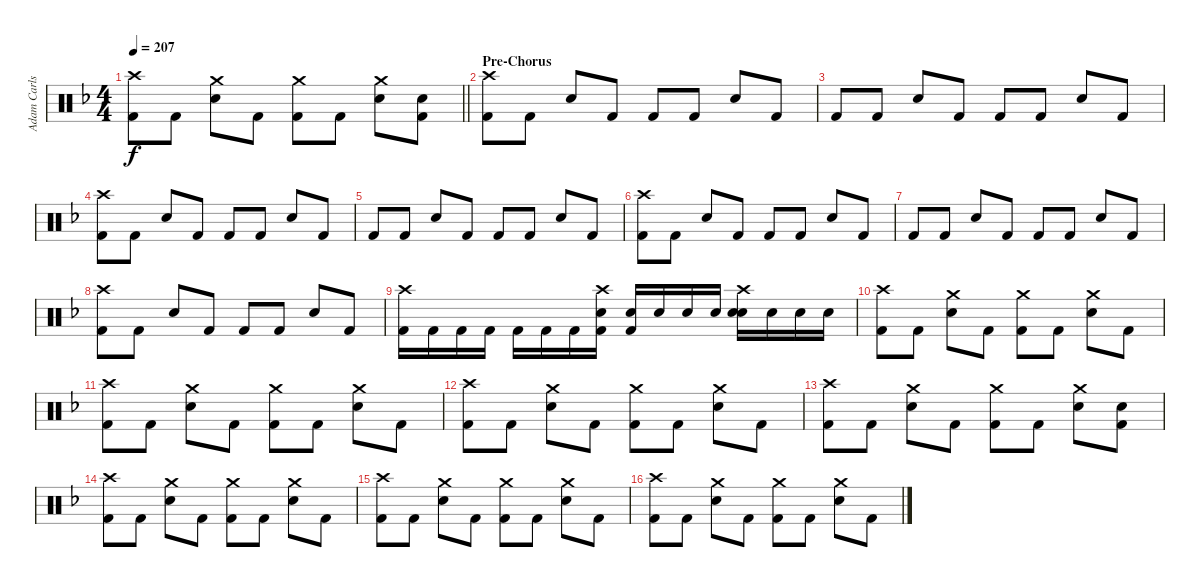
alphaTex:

\track ("Adam Carlson" "Adam Carls") {instrument percussion}
\staff {score}
\articulation defaults
\ts (4 4)
\tempo 207
\clef neutral
\barLineRight lightlight
\ks f
("Crash high (hit)" "Kick (hit) 2").8{dy f} "Kick (hit) 2".8 ("Crash medium (hit)" "Electric Snare (hit)").8 "Kick (hit) 2".8 ("Crash medium (hit)" "Kick (hit) 2").8 "Kick (hit) 2".8 ("Crash medium (hit)" "Electric Snare (hit)").8 ("Electric Snare (hit)" "Kick (hit) 2").8 |
\section ("" "Pre-Chorus")
("Crash high (hit)" "Kick (hit) 2").8 "Kick (hit) 2".8 "Electric Snare (hit)".8 "Kick (hit) 2".8 "Kick (hit) 2".8 "Kick (hit) 2".8 "Electric Snare (hit)".8 "Kick (hit) 2".8 |
"Kick (hit) 2".8 "Kick (hit) 2".8 "Electric Snare (hit)".8 "Kick (hit) 2".8 "Kick (hit) 2".8 "Kick (hit) 2".8 "Electric Snare (hit)".8 "Kick (hit) 2".8 |
("Crash high (hit)" "Kick (hit) 2").8 "Kick (hit) 2".8 "Electric Snare (hit)".8 "Kick (hit) 2".8 "Kick (hit) 2".8 "Kick (hit) 2".8 "Electric Snare (hit)".8 "Kick (hit) 2".8 |
"Kick (hit) 2".8 "Kick (hit) 2".8 "Electric Snare (hit)".8 "Kick (hit) 2".8 "Kick (hit) 2".8 "Kick (hit) 2".8 "Electric Snare (hit)".8 "Kick (hit) 2".8 |
("Crash high (hit)" "Kick (hit) 2").8 "Kick (hit) 2".8 "Electric Snare (hit)".8 "Kick (hit) 2".8 "Kick (hit) 2".8 "Kick (hit) 2".8 "Electric Snare (hit)".8 "Kick (hit) 2".8 |
"Kick (hit) 2".8 "Kick (hit) 2".8 "Electric Snare (hit)".8 "Kick (hit) 2".8 "Kick (hit) 2".8 "Kick (hit) 2".8 "Electric Snare (hit)".8 "Kick (hit) 2".8 |
("Crash high (hit)" "Kick (hit) 2").8 "Kick (hit) 2".8 "Electric Snare (hit)".8 "Kick (hit) 2".8 "Kick (hit) 2".8 "Kick (hit) 2".8 "Electric Snare (hit)".8 "Kick (hit) 2".8 |
("Crash high (hit)" "Kick (hit) 2").16 "Kick (hit) 2".16 "Kick (hit) 2".16 "Kick (hit) 2".16 "Kick (hit) 2".16 "Kick (hit) 2".16 "Kick (hit) 2".16 ("Electric Snare (hit)" "Crash high (hit)" "Kick (hit) 2").16 ("Electric Snare (hit)" "Kick (hit) 2").16 "Electric Snare (hit)".16 "Electric Snare (hit)".16 "Electric Snare (hit)".16 ("Electric Snare (hit)" "Crash high (hit)" "Electric Snare (hit)").16 "Electric Snare (hit)".16 "Electric Snare (hit)".16 "Electric Snare (hit)".16 |
("Crash high (hit)" "Kick (hit) 2").8 "Kick (hit) 2".8 ("Crash medium (hit)" "Electric Snare (hit)").8 "Kick (hit) 2".8 ("Crash medium (hit)" "Kick (hit) 2").8 "Kick (hit) 2".8 ("Crash medium (hit)" "Electric Snare (hit)").8 "Kick (hit) 2".8 |
("Crash high (hit)" "Kick (hit) 2").8 "Kick (hit) 2".8 ("Crash medium (hit)" "Electric Snare (hit)").8 "Kick (hit) 2".8 ("Crash medium (hit)" "Kick (hit) 2").8 "Kick (hit) 2".8 ("Crash medium (hit)" "Electric Snare (hit)").8 "Kick (hit) 2".8 |
("Crash high (hit)" "Kick (hit) 2").8 "Kick (hit) 2".8 ("Crash medium (hit)" "Electric Snare (hit)").8 "Kick (hit) 2".8 ("Crash medium (hit)" "Kick (hit) 2").8 "Kick (hit) 2".8 ("Crash medium (hit)" "Electric Snare (hit)").8 "Kick (hit) 2".8 |
("Crash high (hit)" "Kick (hit) 2").8 "Kick (hit) 2".8 ("Crash medium (hit)" "Electric Snare (hit)").8 "Kick (hit) 2".8 ("Crash medium (hit)" "Kick (hit) 2").8 "Kick (hit) 2".8 ("Crash medium (hit)" "Electric Snare (hit)").8 ("Electric Snare (hit)" "Kick (hit) 2").8 |
("Crash high (hit)" "Kick (hit) 2").8 "Kick (hit) 2".8 ("Crash medium (hit)" "Electric Snare (hit)").8 "Kick (hit) 2".8 ("Crash medium (hit)" "Kick (hit) 2").8 "Kick (hit) 2".8 ("Crash medium (hit)" "Electric Snare (hit)").8 "Kick (hit) 2".8 |
("Crash high (hit)" "Kick (hit) 2").8 "Kick (hit) 2".8 ("Crash medium (hit)" "Electric Snare (hit)").8 "Kick (hit) 2".8 ("Crash medium (hit)" "Kick (hit) 2").8 "Kick (hit) 2".8 ("Crash medium (hit)" "Electric Snare (hit)").8 "Kick (hit) 2".8 |
("Crash high (hit)" "Kick (hit) 2").8 "Kick (hit) 2".8 ("Crash medium (hit)" "Electric Snare (hit)").8 "Kick (hit) 2".8 ("Crash medium (hit)" "Kick (hit) 2").8 "Kick (hit) 2".8 ("Crash medium (hit)" "Electric Snare (hit)").8 "Kick (hit) 2".8
